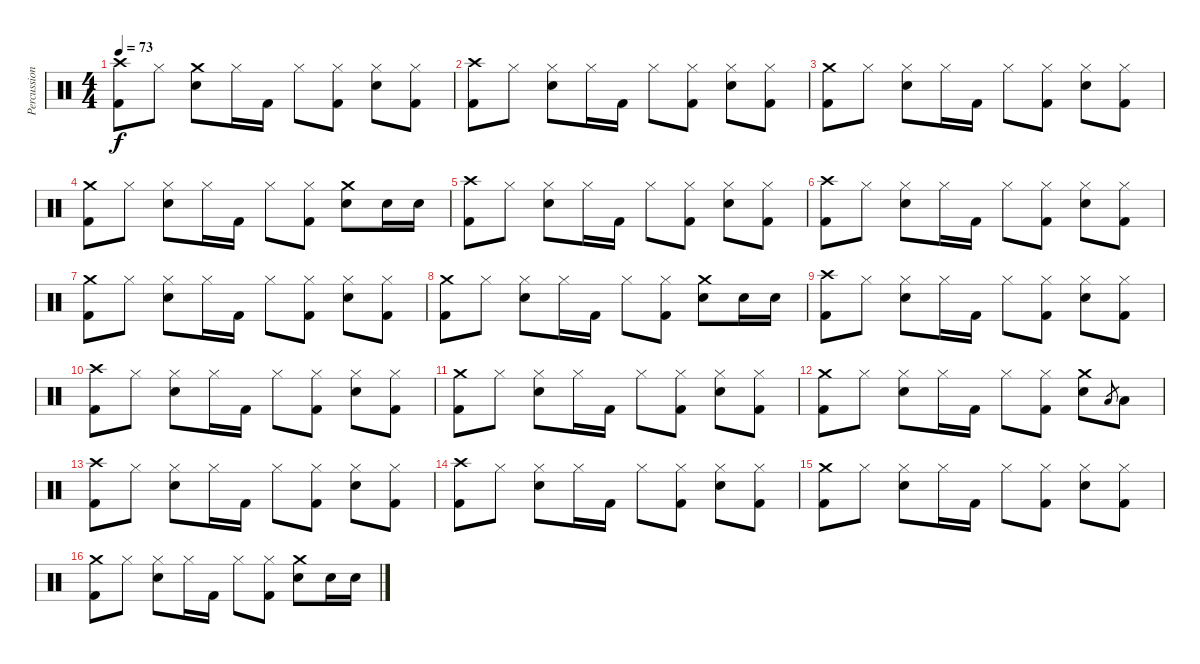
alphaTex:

\track ("Percussion" "Percussion") {instrument percussion}
\staff {score}
\articulation defaults
\ts (4 4)
\tempo 73
\clef neutral
\ks c
("Crash high (hit)" "Kick (hit) 2").8{dy f} "Hi-Hat (closed)".8 ("Crash medium (hit)" "Electric Snare (hit)").8 "Hi-Hat (closed)".16 "Kick (hit) 2".16 "Hi-Hat (closed)".8 ("Hi-Hat (closed)" "Kick (hit) 2").8 ("Hi-Hat (closed)" "Electric Snare (hit)").8 ("Hi-Hat (closed)" "Kick (hit) 2").8 |
("Crash high (hit)" "Kick (hit) 2").8 "Hi-Hat (closed)".8 ("Hi-Hat (closed)" "Electric Snare (hit)").8 "Hi-Hat (closed)".16 "Kick (hit) 2".16 "Hi-Hat (closed)".8 ("Hi-Hat (closed)" "Kick (hit) 2").8 ("Hi-Hat (closed)" "Electric Snare (hit)").8 ("Hi-Hat (closed)" "Kick (hit) 2").8 |
("Crash medium (hit)" "Kick (hit) 2").8 "Hi-Hat (closed)".8 ("Hi-Hat (closed)" "Electric Snare (hit)").8 "Hi-Hat (closed)".16 "Kick (hit) 2".16 "Hi-Hat (closed)".8 ("Hi-Hat (closed)" "Kick (hit) 2").8 ("Hi-Hat (closed)" "Electric Snare (hit)").8 ("Hi-Hat (closed)" "Kick (hit) 2").8 |
("Crash medium (hit)" "Kick (hit) 2").8 "Hi-Hat (closed)".8 ("Hi-Hat (closed)" "Electric Snare (hit)").8 "Hi-Hat (closed)".16 "Kick (hit) 2".16 "Hi-Hat (closed)".8 ("Hi-Hat (closed)" "Kick (hit) 2").8 ("Crash medium (hit)" "Electric Snare (hit)").8 "Electric Snare (hit)".16 "Electric Snare (hit)".16 |
("Crash high (hit)" "Kick (hit) 2").8 "Hi-Hat (closed)".8 ("Hi-Hat (closed)" "Electric Snare (hit)").8 "Hi-Hat (closed)".16 "Kick (hit) 2".16 "Hi-Hat (closed)".8 ("Hi-Hat (closed)" "Kick (hit) 2").8 ("Hi-Hat (closed)" "Electric Snare (hit)").8 ("Hi-Hat (closed)" "Kick (hit) 2").8 |
("Crash high (hit)" "Kick (hit) 2").8 "Hi-Hat (closed)".8 ("Hi-Hat (closed)" "Electric Snare (hit)").8 "Hi-Hat (closed)".16 "Kick (hit) 2".16 "Hi-Hat (closed)".8 ("Hi-Hat (closed)" "Kick (hit) 2").8 ("Hi-Hat (closed)" "Electric Snare (hit)").8 ("Hi-Hat (closed)" "Kick (hit) 2").8 |
("Crash medium (hit)" "Kick (hit) 2").8 "Hi-Hat (closed)".8 ("Hi-Hat (closed)" "Electric Snare (hit)").8 "Hi-Hat (closed)".16 "Kick (hit) 2".16 "Hi-Hat (closed)".8 ("Hi-Hat (closed)" "Kick (hit) 2").8 ("Hi-Hat (closed)" "Electric Snare (hit)").8 ("Hi-Hat (closed)" "Kick (hit) 2").8 |
("Crash medium (hit)" "Kick (hit) 2").8 "Hi-Hat (closed)".8 ("Hi-Hat (closed)" "Electric Snare (hit)").8 "Hi-Hat (closed)".16 "Kick (hit) 2".16 "Hi-Hat (closed)".8 ("Hi-Hat (closed)" "Kick (hit) 2").8 ("Crash medium (hit)" "Electric Snare (hit)").8 "Electric Snare (hit)".16 "Electric Snare (hit)".16 |
("Crash high (hit)" "Kick (hit) 2").8 "Hi-Hat (closed)".8 ("Hi-Hat (closed)" "Electric Snare (hit)").8 "Hi-Hat (closed)".16 "Kick (hit) 2".16 "Hi-Hat (closed)".8 ("Hi-Hat (closed)" "Kick (hit) 2").8 ("Hi-Hat (closed)" "Electric Snare (hit)").8 ("Hi-Hat (closed)" "Kick (hit) 2").8 |
("Crash high (hit)" "Kick (hit) 2").8 "Hi-Hat (closed)".8 ("Hi-Hat (closed)" "Electric Snare (hit)").8 "Hi-Hat (closed)".16 "Kick (hit) 2".16 "Hi-Hat (closed)".8 ("Hi-Hat (closed)" "Kick (hit) 2").8 ("Hi-Hat (closed)" "Electric Snare (hit)").8 ("Hi-Hat (closed)" "Kick (hit) 2").8 |
("Crash medium (hit)" "Kick (hit) 2").8 "Hi-Hat (closed)".8 ("Hi-Hat (closed)" "Electric Snare (hit)").8 "Hi-Hat (closed)".16 "Kick (hit) 2".16 "Hi-Hat (closed)".8 ("Hi-Hat (closed)" "Kick (hit) 2").8 ("Hi-Hat (closed)" "Electric Snare (hit)").8 ("Hi-Hat (closed)" "Kick (hit) 2").8 |
("Crash medium (hit)" "Kick (hit) 2").8 "Hi-Hat (closed)".8 ("Hi-Hat (closed)" "Electric Snare (hit)").8 "Hi-Hat (closed)".16 "Kick (hit) 2".16 "Hi-Hat (closed)".8 ("Hi-Hat (closed)" "Kick (hit) 2").8 ("Crash medium (hit)" "Electric Snare (hit)").8 "Low Floor Tom (hit)".8{gr} "Low Floor Tom (hit)".8 |
("Crash high (hit)" "Kick (hit) 2").8 "Hi-Hat (closed)".8 ("Hi-Hat (closed)" "Electric Snare (hit)").8 "Hi-Hat (closed)".16 "Kick (hit) 2".16 "Hi-Hat (closed)".8 ("Hi-Hat (closed)" "Kick (hit) 2").8 ("Hi-Hat (closed)" "Electric Snare (hit)").8 ("Hi-Hat (closed)" "Kick (hit) 2").8 |
("Crash high (hit)" "Kick (hit) 2").8 "Hi-Hat (closed)".8 ("Hi-Hat (closed)" "Electric Snare (hit)").8 "Hi-Hat (closed)".16 "Kick (hit) 2".16 "Hi-Hat (closed)".8 ("Hi-Hat (closed)" "Kick (hit) 2").8 ("Hi-Hat (closed)" "Electric Snare (hit)").8 ("Hi-Hat (closed)" "Kick (hit) 2").8 |
("Crash medium (hit)" "Kick (hit) 2").8 "Hi-Hat (closed)".8 ("Hi-Hat (closed)" "Electric Snare (hit)").8 "Hi-Hat (closed)".16 "Kick (hit) 2".16 "Hi-Hat (closed)".8 ("Hi-Hat (closed)" "Kick (hit) 2").8 ("Hi-Hat (closed)" "Electric Snare (hit)").8 ("Hi-Hat (closed)" "Kick (hit) 2").8 |
("Crash medium (hit)" "Kick (hit) 2").8 "Hi-Hat (closed)".8 ("Hi-Hat (closed)" "Electric Snare (hit)").8 "Hi-Hat (closed)".16 "Kick (hit) 2".16 "Hi-Hat (closed)".8 ("Hi-Hat (closed)" "Kick (hit) 2").8 ("Crash medium (hit)" "Electric Snare (hit)").8 "Electric Snare (hit)".16 "Electric Snare (hit)".16
